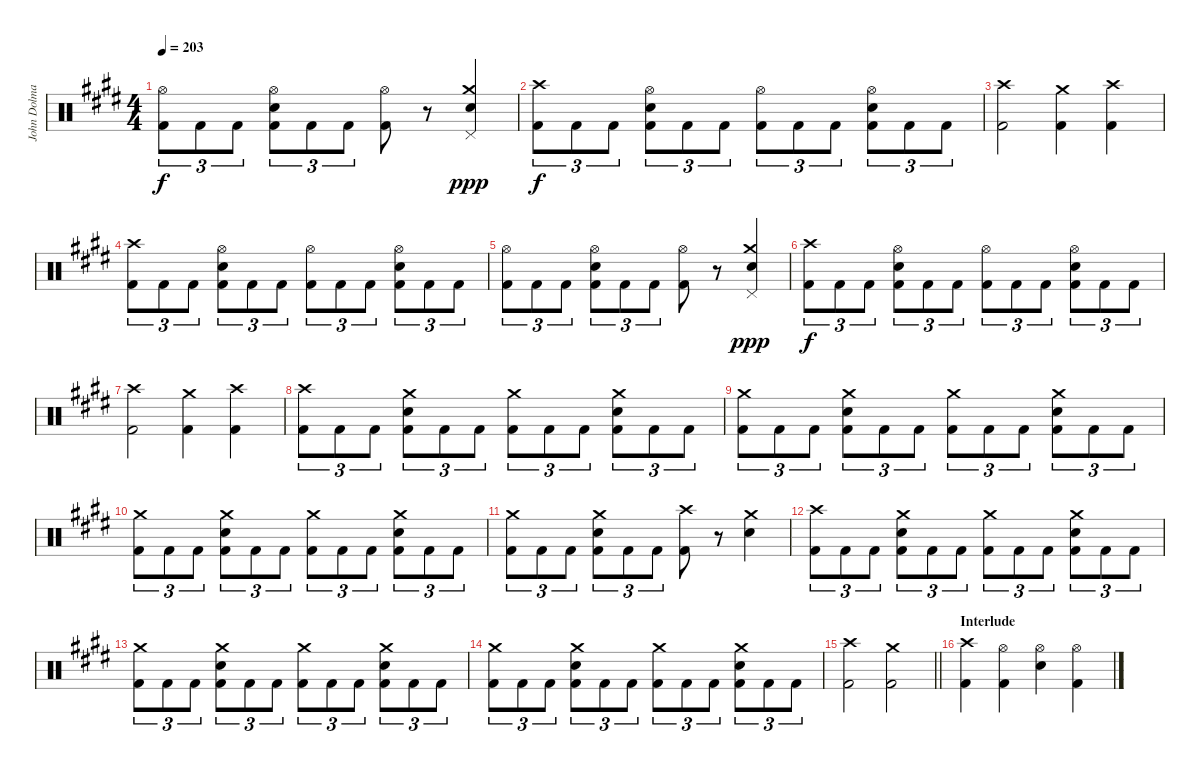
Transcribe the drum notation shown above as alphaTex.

\track ("John Dolmayan [Drums]" "John Dolma") {instrument percussion}
\staff {score}
\articulation defaults
\ts (4 4)
\tempo 203
\clef neutral
\ks c#minor
("Hi-Hat (open)" "Kick (hit) 2").8{tu (3 2) dy f} "Kick (hit) 2".8{tu (3 2)} "Kick (hit) 2".8{tu (3 2)} ("Hi-Hat (open)" "Electric Snare (hit)" "Kick (hit) 2").8{tu (3 2)} "Kick (hit) 2".8{tu (3 2)} "Kick (hit) 2".8{tu (3 2)} ("Hi-Hat (open)" "Kick (hit) 2").8 r.8 ("Crash medium (hit)" "Pedal Hi-Hat (hit)" "Electric Snare (hit)").4{dy ppp} |
("Crash high (hit)" "Kick (hit) 2").8{tu (3 2) dy f} "Kick (hit) 2".8{tu (3 2)} "Kick (hit) 2".8{tu (3 2)} ("Hi-Hat (open)" "Electric Snare (hit)" "Kick (hit) 2").8{tu (3 2)} "Kick (hit) 2".8{tu (3 2)} "Kick (hit) 2".8{tu (3 2)} ("Hi-Hat (open)" "Kick (hit) 2").8{tu (3 2)} "Kick (hit) 2".8{tu (3 2)} "Kick (hit) 2".8{tu (3 2)} ("Hi-Hat (open)" "Electric Snare (hit)" "Kick (hit) 2").8{tu (3 2)} "Kick (hit) 2".8{tu (3 2)} "Kick (hit) 2".8{tu (3 2)} |
("Crash high (hit)" "Kick (hit) 2").2 ("Crash medium (hit)" "Kick (hit) 2").4 ("Crash high (hit)" "Kick (hit) 2").4 |
("Crash high (hit)" "Kick (hit) 2").8{tu (3 2)} "Kick (hit) 2".8{tu (3 2)} "Kick (hit) 2".8{tu (3 2)} ("Hi-Hat (open)" "Electric Snare (hit)" "Kick (hit) 2").8{tu (3 2)} "Kick (hit) 2".8{tu (3 2)} "Kick (hit) 2".8{tu (3 2)} ("Hi-Hat (open)" "Kick (hit) 2").8{tu (3 2)} "Kick (hit) 2".8{tu (3 2)} "Kick (hit) 2".8{tu (3 2)} ("Hi-Hat (open)" "Electric Snare (hit)" "Kick (hit) 2").8{tu (3 2)} "Kick (hit) 2".8{tu (3 2)} "Kick (hit) 2".8{tu (3 2)} |
("Hi-Hat (open)" "Kick (hit) 2").8{tu (3 2)} "Kick (hit) 2".8{tu (3 2)} "Kick (hit) 2".8{tu (3 2)} ("Hi-Hat (open)" "Electric Snare (hit)" "Kick (hit) 2").8{tu (3 2)} "Kick (hit) 2".8{tu (3 2)} "Kick (hit) 2".8{tu (3 2)} ("Hi-Hat (open)" "Kick (hit) 2").8 r.8 ("Crash medium (hit)" "Pedal Hi-Hat (hit)" "Electric Snare (hit)").4{dy ppp} |
("Crash high (hit)" "Kick (hit) 2").8{tu (3 2) dy f} "Kick (hit) 2".8{tu (3 2)} "Kick (hit) 2".8{tu (3 2)} ("Hi-Hat (open)" "Electric Snare (hit)" "Kick (hit) 2").8{tu (3 2)} "Kick (hit) 2".8{tu (3 2)} "Kick (hit) 2".8{tu (3 2)} ("Hi-Hat (open)" "Kick (hit) 2").8{tu (3 2)} "Kick (hit) 2".8{tu (3 2)} "Kick (hit) 2".8{tu (3 2)} ("Hi-Hat (open)" "Electric Snare (hit)" "Kick (hit) 2").8{tu (3 2)} "Kick (hit) 2".8{tu (3 2)} "Kick (hit) 2".8{tu (3 2)} |
("Crash high (hit)" "Kick (hit) 2").2 ("Crash medium (hit)" "Kick (hit) 2").4 ("Crash high (hit)" "Kick (hit) 2").4 |
("Crash high (hit)" "Kick (hit) 2").8{tu (3 2)} "Kick (hit) 2".8{tu (3 2)} "Kick (hit) 2".8{tu (3 2)} ("Crash medium (hit)" "Electric Snare (hit)" "Kick (hit) 2").8{tu (3 2)} "Kick (hit) 2".8{tu (3 2)} "Kick (hit) 2".8{tu (3 2)} ("Crash medium (hit)" "Kick (hit) 2").8{tu (3 2)} "Kick (hit) 2".8{tu (3 2)} "Kick (hit) 2".8{tu (3 2)} ("Crash medium (hit)" "Electric Snare (hit)" "Kick (hit) 2").8{tu (3 2)} "Kick (hit) 2".8{tu (3 2)} "Kick (hit) 2".8{tu (3 2)} |
("Crash medium (hit)" "Kick (hit) 2").8{tu (3 2)} "Kick (hit) 2".8{tu (3 2)} "Kick (hit) 2".8{tu (3 2)} ("Crash medium (hit)" "Electric Snare (hit)" "Kick (hit) 2").8{tu (3 2)} "Kick (hit) 2".8{tu (3 2)} "Kick (hit) 2".8{tu (3 2)} ("Crash medium (hit)" "Kick (hit) 2").8{tu (3 2)} "Kick (hit) 2".8{tu (3 2)} "Kick (hit) 2".8{tu (3 2)} ("Crash medium (hit)" "Electric Snare (hit)" "Kick (hit) 2").8{tu (3 2)} "Kick (hit) 2".8{tu (3 2)} "Kick (hit) 2".8{tu (3 2)} |
("Crash medium (hit)" "Kick (hit) 2").8{tu (3 2)} "Kick (hit) 2".8{tu (3 2)} "Kick (hit) 2".8{tu (3 2)} ("Crash medium (hit)" "Electric Snare (hit)" "Kick (hit) 2").8{tu (3 2)} "Kick (hit) 2".8{tu (3 2)} "Kick (hit) 2".8{tu (3 2)} ("Crash medium (hit)" "Kick (hit) 2").8{tu (3 2)} "Kick (hit) 2".8{tu (3 2)} "Kick (hit) 2".8{tu (3 2)} ("Crash medium (hit)" "Electric Snare (hit)" "Kick (hit) 2").8{tu (3 2)} "Kick (hit) 2".8{tu (3 2)} "Kick (hit) 2".8{tu (3 2)} |
("Crash medium (hit)" "Kick (hit) 2").8{tu (3 2)} "Kick (hit) 2".8{tu (3 2)} "Kick (hit) 2".8{tu (3 2)} ("Crash medium (hit)" "Electric Snare (hit)" "Kick (hit) 2").8{tu (3 2)} "Kick (hit) 2".8{tu (3 2)} "Kick (hit) 2".8{tu (3 2)} ("Crash high (hit)" "Kick (hit) 2").8 r.8 ("Crash medium (hit)" "Electric Snare (hit)").4 |
("Crash high (hit)" "Kick (hit) 2").8{tu (3 2)} "Kick (hit) 2".8{tu (3 2)} "Kick (hit) 2".8{tu (3 2)} ("Crash medium (hit)" "Electric Snare (hit)" "Kick (hit) 2").8{tu (3 2)} "Kick (hit) 2".8{tu (3 2)} "Kick (hit) 2".8{tu (3 2)} ("Crash medium (hit)" "Kick (hit) 2").8{tu (3 2)} "Kick (hit) 2".8{tu (3 2)} "Kick (hit) 2".8{tu (3 2)} ("Crash medium (hit)" "Electric Snare (hit)" "Kick (hit) 2").8{tu (3 2)} "Kick (hit) 2".8{tu (3 2)} "Kick (hit) 2".8{tu (3 2)} |
("Crash medium (hit)" "Kick (hit) 2").8{tu (3 2)} "Kick (hit) 2".8{tu (3 2)} "Kick (hit) 2".8{tu (3 2)} ("Crash medium (hit)" "Electric Snare (hit)" "Kick (hit) 2").8{tu (3 2)} "Kick (hit) 2".8{tu (3 2)} "Kick (hit) 2".8{tu (3 2)} ("Crash medium (hit)" "Kick (hit) 2").8{tu (3 2)} "Kick (hit) 2".8{tu (3 2)} "Kick (hit) 2".8{tu (3 2)} ("Crash medium (hit)" "Electric Snare (hit)" "Kick (hit) 2").8{tu (3 2)} "Kick (hit) 2".8{tu (3 2)} "Kick (hit) 2".8{tu (3 2)} |
("Crash medium (hit)" "Kick (hit) 2").8{tu (3 2)} "Kick (hit) 2".8{tu (3 2)} "Kick (hit) 2".8{tu (3 2)} ("Crash medium (hit)" "Electric Snare (hit)" "Kick (hit) 2").8{tu (3 2)} "Kick (hit) 2".8{tu (3 2)} "Kick (hit) 2".8{tu (3 2)} ("Crash medium (hit)" "Kick (hit) 2").8{tu (3 2)} "Kick (hit) 2".8{tu (3 2)} "Kick (hit) 2".8{tu (3 2)} ("Crash medium (hit)" "Electric Snare (hit)" "Kick (hit) 2").8{tu (3 2)} "Kick (hit) 2".8{tu (3 2)} "Kick (hit) 2".8{tu (3 2)} |
\barLineRight lightlight
("Crash high (hit)" "Kick (hit) 2").2 ("Crash medium (hit)" "Kick (hit) 2").2 |
\section ("" "Interlude")
("Crash high (hit)" "Kick (hit) 2").4 ("Hi-Hat (open)" "Kick (hit) 2").4 ("Hi-Hat (open)" "Electric Snare (hit)").4 ("Hi-Hat (open)" "Kick (hit) 2").4
